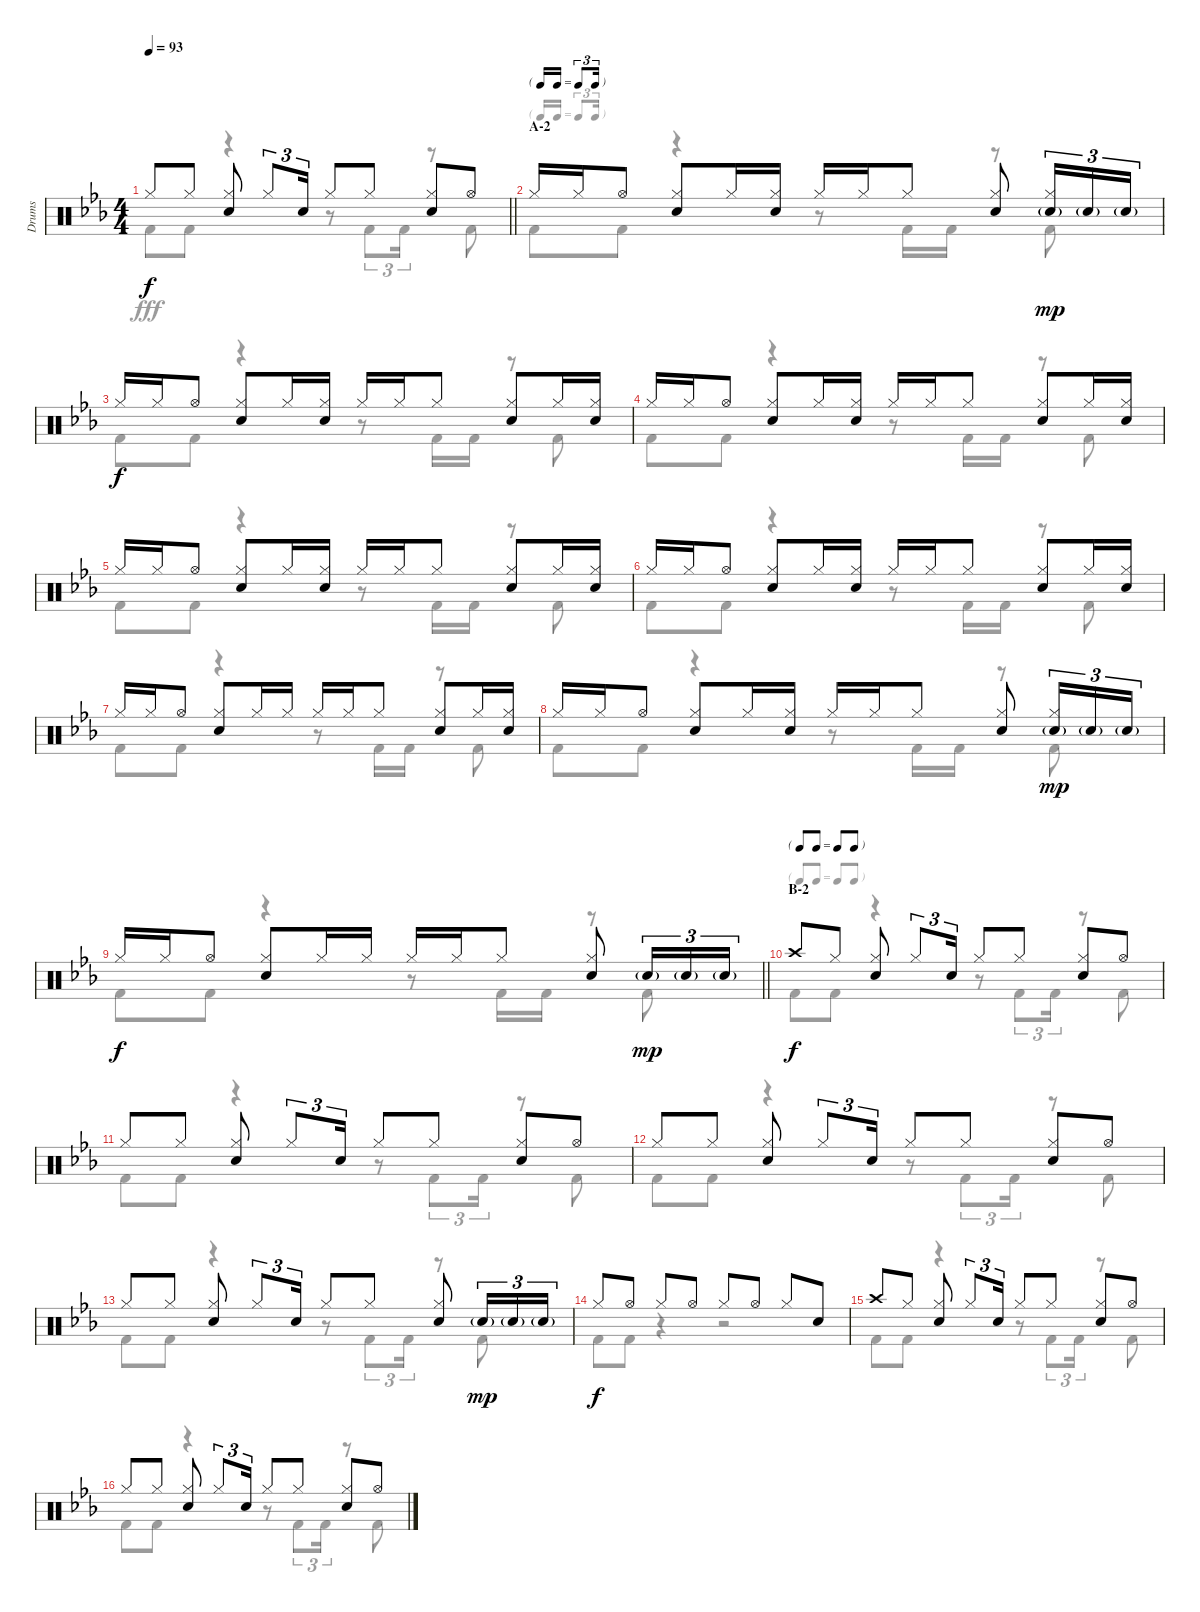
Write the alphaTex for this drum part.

\track ("Drums" "Drums") {instrument percussion}
\staff {score}
\articulation defaults
\voice
\ts (4 4)
\tempo 93
\clef neutral
\barLineRight lightlight
\ks eb "Hi-Hat (closed)".8{dy f} "Hi-Hat (closed)".8
("Hi-Hat (closed)" "Snare (hit) 2").8 "Hi-Hat (closed)".8{tu (3 2)} "Snare (hit) 2".16{tu (3 2)} "Hi-Hat (closed)".8 "Hi-Hat (closed)".8 ("Hi-Hat (closed)" "Snare (hit) 2").8 "Hi-Hat (open)".8 |
\tf triplet16th
\section ("" "A-2")
"Hi-Hat (closed)".16 "Hi-Hat (closed)".16 "Hi-Hat (open)".8 ("Hi-Hat (closed)" "Snare (hit) 2").8 "Hi-Hat (closed)".16 ("Hi-Hat (closed)" "Snare (hit) 2").16 "Hi-Hat (closed)".16 "Hi-Hat (closed)".16 "Hi-Hat (closed)".8 ("Hi-Hat (closed)" "Snare (hit) 2").8 ("Hi-Hat (closed)" "Snare (hit) 2"{g}).16{tu (3 2) dy mp} "Snare (hit) 2"{g}.16{tu (3 2)} "Snare (hit) 2"{g}.16{tu (3 2)} |
"Hi-Hat (closed)".16{dy f} "Hi-Hat (closed)".16 "Hi-Hat (open)".8 ("Hi-Hat (closed)" "Snare (hit) 2").8 "Hi-Hat (closed)".16 ("Hi-Hat (closed)" "Snare (hit) 2").16 "Hi-Hat (closed)".16 "Hi-Hat (closed)".16 "Hi-Hat (closed)".8 ("Hi-Hat (closed)" "Snare (hit) 2").8 "Hi-Hat (closed)".16 ("Hi-Hat (closed)" "Snare (hit) 2").16 |
"Hi-Hat (closed)".16 "Hi-Hat (closed)".16 "Hi-Hat (open)".8 ("Hi-Hat (closed)" "Snare (hit) 2").8 "Hi-Hat (closed)".16 ("Hi-Hat (closed)" "Snare (hit) 2").16 "Hi-Hat (closed)".16 "Hi-Hat (closed)".16 "Hi-Hat (closed)".8 ("Hi-Hat (closed)" "Snare (hit) 2").8 "Hi-Hat (closed)".16 ("Hi-Hat (closed)" "Snare (hit) 2").16 |
"Hi-Hat (closed)".16 "Hi-Hat (closed)".16 "Hi-Hat (open)".8 ("Hi-Hat (closed)" "Snare (hit) 2").8 "Hi-Hat (closed)".16 ("Hi-Hat (closed)" "Snare (hit) 2").16 "Hi-Hat (closed)".16 "Hi-Hat (closed)".16 "Hi-Hat (closed)".8 ("Hi-Hat (closed)" "Snare (hit) 2").8 "Hi-Hat (closed)".16 ("Hi-Hat (closed)" "Snare (hit) 2").16 |
"Hi-Hat (closed)".16 "Hi-Hat (closed)".16 "Hi-Hat (open)".8 ("Hi-Hat (closed)" "Snare (hit) 2").8 "Hi-Hat (closed)".16 ("Hi-Hat (closed)" "Snare (hit) 2").16 "Hi-Hat (closed)".16 "Hi-Hat (closed)".16 "Hi-Hat (closed)".8 ("Hi-Hat (closed)" "Snare (hit) 2").8 "Hi-Hat (closed)".16 ("Hi-Hat (closed)" "Snare (hit) 2").16 |
"Hi-Hat (closed)".16 "Hi-Hat (closed)".16 "Hi-Hat (open)".8 ("Hi-Hat (closed)" "Snare (hit) 2").8 "Hi-Hat (closed)".16 "Hi-Hat (closed)".16 "Hi-Hat (closed)".16 "Hi-Hat (closed)".16 "Hi-Hat (closed)".8 ("Hi-Hat (closed)" "Snare (hit) 2").8 "Hi-Hat (closed)".16 ("Hi-Hat (closed)" "Snare (hit) 2").16 |
"Hi-Hat (closed)".16 "Hi-Hat (closed)".16 "Hi-Hat (open)".8 ("Hi-Hat (closed)" "Snare (hit) 2").8 "Hi-Hat (closed)".16 ("Hi-Hat (closed)" "Snare (hit) 2").16 "Hi-Hat (closed)".16 "Hi-Hat (closed)".16 "Hi-Hat (closed)".8 ("Hi-Hat (closed)" "Snare (hit) 2").8 ("Hi-Hat (closed)" "Snare (hit) 2"{g}).16{tu (3 2) dy mp} "Snare (hit) 2"{g}.16{tu (3 2)} "Snare (hit) 2"{g}.16{tu (3 2)} |
\barLineRight lightlight "Hi-Hat (closed)".16{dy f} "Hi-Hat (closed)".16 "Hi-Hat (open)".8
("Hi-Hat (closed)" "Snare (hit) 2").8 "Hi-Hat (closed)".16 "Hi-Hat (closed)".16 "Hi-Hat (closed)".16 "Hi-Hat (closed)".16 "Hi-Hat (closed)".8 ("Hi-Hat (closed)" "Snare (hit) 2").8 "Snare (hit) 2"{g}.16{tu (3 2) dy mp} "Snare (hit) 2"{g}.16{tu (3 2)} "Snare (hit) 2"{g}.16{tu (3 2)} |
\tf none
\section ("" "B-2")
"Crash high (hit)".8{dy f} "Hi-Hat (closed)".8 ("Hi-Hat (closed)" "Snare (hit) 2").8 "Hi-Hat (closed)".8{tu (3 2)} "Snare (hit) 2".16{tu (3 2)} "Hi-Hat (closed)".8 "Hi-Hat (closed)".8 ("Hi-Hat (closed)" "Snare (hit) 2").8 "Hi-Hat (open)".8 |
"Hi-Hat (closed)".8 "Hi-Hat (closed)".8 ("Hi-Hat (closed)" "Snare (hit) 2").8 "Hi-Hat (closed)".8{tu (3 2)} "Snare (hit) 2".16{tu (3 2)} "Hi-Hat (closed)".8 "Hi-Hat (closed)".8 ("Hi-Hat (closed)" "Snare (hit) 2").8 "Hi-Hat (open)".8 |
"Hi-Hat (closed)".8 "Hi-Hat (closed)".8 ("Hi-Hat (closed)" "Snare (hit) 2").8 "Hi-Hat (closed)".8{tu (3 2)} "Snare (hit) 2".16{tu (3 2)} "Hi-Hat (closed)".8 "Hi-Hat (closed)".8 ("Hi-Hat (closed)" "Snare (hit) 2").8 "Hi-Hat (open)".8 |
"Hi-Hat (closed)".8 "Hi-Hat (closed)".8 ("Hi-Hat (closed)" "Snare (hit) 2").8 "Hi-Hat (closed)".8{tu (3 2)} "Snare (hit) 2".16{tu (3 2)} "Hi-Hat (closed)".8 "Hi-Hat (closed)".8 ("Hi-Hat (closed)" "Snare (hit) 2").8 "Snare (hit) 2"{g}.16{tu (3 2) dy mp} "Snare (hit) 2"{g}.16{tu (3 2)} "Snare (hit) 2"{g}.16{tu (3 2)} |
"Hi-Hat (closed)".8{dy f} "Hi-Hat (open)".8 "Hi-Hat (closed)".8 "Hi-Hat (open)".8 "Hi-Hat (closed)".8 "Hi-Hat (open)".8 "Hi-Hat (closed)".8 "Snare (hit) 2".8 |
"Crash high (hit)".8 "Hi-Hat (closed)".8 ("Hi-Hat (closed)" "Snare (hit) 2").8 "Hi-Hat (closed)".8{tu (3 2)} "Snare (hit) 2".16{tu (3 2)} "Hi-Hat (closed)".8 "Hi-Hat (closed)".8 ("Hi-Hat (closed)" "Snare (hit) 2").8 "Hi-Hat (open)".8 |
"Hi-Hat (closed)".8 "Hi-Hat (closed)".8 ("Hi-Hat (closed)" "Snare (hit) 2").8 "Hi-Hat (closed)".8{tu (3 2)} "Snare (hit) 2".16{tu (3 2)} "Hi-Hat (closed)".8 "Hi-Hat (closed)".8 ("Hi-Hat (closed)" "Snare (hit) 2").8 "Hi-Hat (open)".8
\voice
\clef neutral
\ottava regular
\simile none
\barLineRight lightlight
\ks eb "Kick (hit) 2".8{dy fff} "Kick (hit) 2".8
r.4 r.8 "Kick (hit) 2".8{tu (3 2)} "Kick (hit) 2".16{tu (3 2)} r.8 "Kick (hit) 2".8 |
"Kick (hit) 2".8 "Kick (hit) 2".8 r.4 r.8 "Kick (hit) 2".16 "Kick (hit) 2".16 r.8 "Kick (hit) 2".8 |
"Kick (hit) 2".8 "Kick (hit) 2".8 r.4 r.8 "Kick (hit) 2".16 "Kick (hit) 2".16 r.8 "Kick (hit) 2".8 |
"Kick (hit) 2".8 "Kick (hit) 2".8 r.4 r.8 "Kick (hit) 2".16 "Kick (hit) 2".16 r.8 "Kick (hit) 2".8 |
"Kick (hit) 2".8 "Kick (hit) 2".8 r.4 r.8 "Kick (hit) 2".16 "Kick (hit) 2".16 r.8 "Kick (hit) 2".8 |
"Kick (hit) 2".8 "Kick (hit) 2".8 r.4 r.8 "Kick (hit) 2".16 "Kick (hit) 2".16 r.8 "Kick (hit) 2".8 |
"Kick (hit) 2".8 "Kick (hit) 2".8 r.4 r.8 "Kick (hit) 2".16 "Kick (hit) 2".16 r.8 "Kick (hit) 2".8 |
"Kick (hit) 2".8 "Kick (hit) 2".8 r.4 r.8 "Kick (hit) 2".16 "Kick (hit) 2".16 r.8 "Kick (hit) 2".8 |
\barLineRight lightlight "Kick (hit) 2".8 "Kick (hit) 2".8
r.4 r.8 "Kick (hit) 2".16 "Kick (hit) 2".16 r.8 "Kick (hit) 2".8 |
"Kick (hit) 2".8 "Kick (hit) 2".8 r.4 r.8 "Kick (hit) 2".8{tu (3 2)} "Kick (hit) 2".16{tu (3 2)} r.8 "Kick (hit) 2".8 |
"Kick (hit) 2".8 "Kick (hit) 2".8 r.4 r.8 "Kick (hit) 2".8{tu (3 2)} "Kick (hit) 2".16{tu (3 2)} r.8 "Kick (hit) 2".8 |
"Kick (hit) 2".8 "Kick (hit) 2".8 r.4 r.8 "Kick (hit) 2".8{tu (3 2)} "Kick (hit) 2".16{tu (3 2)} r.8 "Kick (hit) 2".8 |
"Kick (hit) 2".8 "Kick (hit) 2".8 r.4 r.8 "Kick (hit) 2".8{tu (3 2)} "Kick (hit) 2".16{tu (3 2)} r.8 "Kick (hit) 2".8 |
"Kick (hit) 2".8 "Kick (hit) 2".8 r.4 r.2 |
"Kick (hit) 2".8 "Kick (hit) 2".8 r.4 r.8 "Kick (hit) 2".8{tu (3 2)} "Kick (hit) 2".16{tu (3 2)} r.8 "Kick (hit) 2".8 |
"Kick (hit) 2".8 "Kick (hit) 2".8 r.4 r.8 "Kick (hit) 2".8{tu (3 2)} "Kick (hit) 2".16{tu (3 2)} r.8 "Kick (hit) 2".8
